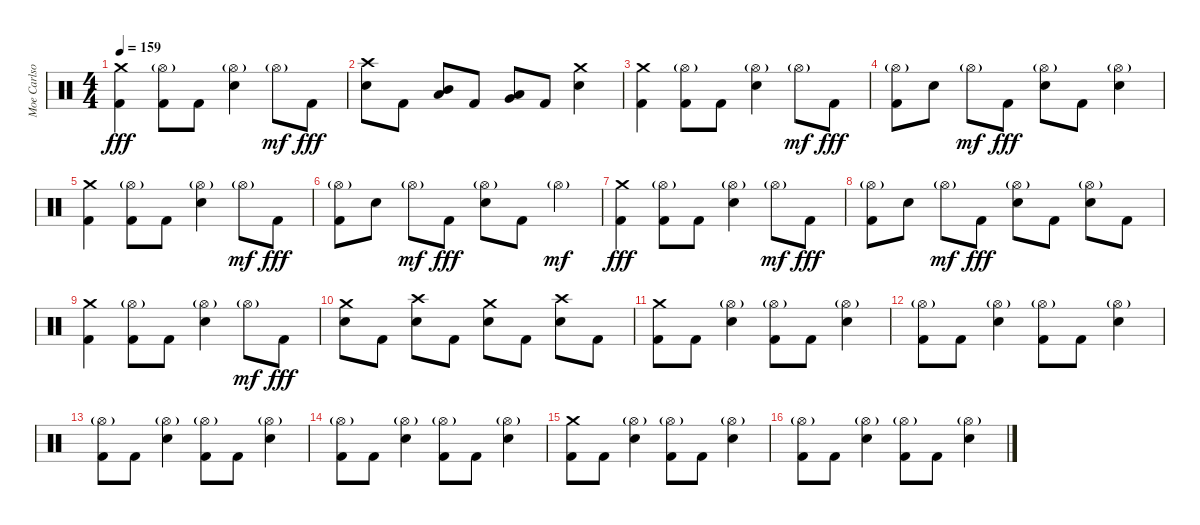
\track ("Moe Carlson" "Moe Carlso") {instrument percussion}
\staff {score}
\articulation defaults
\ts (4 4)
\tempo 159
\clef neutral
\ks c
("Crash medium (hit)" "Kick (hit) 2").4{dy fff} ("Hi-Hat (open)"{g} "Kick (hit) 2").8 "Kick (hit) 2".8 ("Hi-Hat (open)"{g} "Electric Snare (hit)").4 "Hi-Hat (open)"{g}.8{dy mf} "Kick (hit) 2".8{dy fff} |
("Crash high (hit)" "Electric Snare (hit)").8 "Kick (hit) 2".8 ("Mid Tom (hit)" "Low Tom (hit)").8 "Kick (hit) 2".8 ("Low Tom (hit)" "Very Low Tom (hit)").8 "Kick (hit) 2".8 ("Crash medium (hit)" "Electric Snare (hit)").4 |
("Crash medium (hit)" "Kick (hit) 2").4 ("Hi-Hat (open)"{g} "Kick (hit) 2").8 "Kick (hit) 2".8 ("Hi-Hat (open)"{g} "Electric Snare (hit)").4 "Hi-Hat (open)"{g}.8{dy mf} "Kick (hit) 2".8{dy fff} |
("Hi-Hat (open)"{g} "Kick (hit) 2").8 "Electric Snare (hit)".8 "Hi-Hat (open)"{g}.8{dy mf} "Kick (hit) 2".8{dy fff} ("Hi-Hat (open)"{g} "Electric Snare (hit)").8 "Kick (hit) 2".8 ("Hi-Hat (open)"{g} "Electric Snare (hit)").4 |
("Crash medium (hit)" "Kick (hit) 2").4 ("Hi-Hat (open)"{g} "Kick (hit) 2").8 "Kick (hit) 2".8 ("Hi-Hat (open)"{g} "Electric Snare (hit)").4 "Hi-Hat (open)"{g}.8{dy mf} "Kick (hit) 2".8{dy fff} |
("Hi-Hat (open)"{g} "Kick (hit) 2").8 "Electric Snare (hit)".8 "Hi-Hat (open)"{g}.8{dy mf} "Kick (hit) 2".8{dy fff} ("Hi-Hat (open)"{g} "Electric Snare (hit)").8 "Kick (hit) 2".8 "Hi-Hat (open)"{g}.4{dy mf} |
("Crash medium (hit)" "Kick (hit) 2").4{dy fff} ("Hi-Hat (open)"{g} "Kick (hit) 2").8 "Kick (hit) 2".8 ("Hi-Hat (open)"{g} "Electric Snare (hit)").4 "Hi-Hat (open)"{g}.8{dy mf} "Kick (hit) 2".8{dy fff} |
("Hi-Hat (open)"{g} "Kick (hit) 2").8 "Electric Snare (hit)".8 "Hi-Hat (open)"{g}.8{dy mf} "Kick (hit) 2".8{dy fff} ("Hi-Hat (open)"{g} "Electric Snare (hit)").8 "Kick (hit) 2".8 ("Hi-Hat (open)"{g} "Electric Snare (hit)").8 "Kick (hit) 2".8 |
("Crash medium (hit)" "Kick (hit) 2").4 ("Hi-Hat (open)"{g} "Kick (hit) 2").8 "Kick (hit) 2".8 ("Hi-Hat (open)"{g} "Electric Snare (hit)").4 "Hi-Hat (open)"{g}.8{dy mf} "Kick (hit) 2".8{dy fff} |
("Crash medium (hit)" "Electric Snare (hit)").8 "Kick (hit) 2".8 ("Crash high (hit)" "Electric Snare (hit)").8 "Kick (hit) 2".8 ("Crash medium (hit)" "Electric Snare (hit)").8 "Kick (hit) 2".8 ("Crash high (hit)" "Electric Snare (hit)").8 "Kick (hit) 2".8 |
("Crash medium (hit)" "Kick (hit) 2").8 "Kick (hit) 2".8 ("Hi-Hat (open)"{g} "Electric Snare (hit)").4 ("Hi-Hat (open)"{g} "Kick (hit) 2").8 "Kick (hit) 2".8 ("Hi-Hat (open)"{g} "Electric Snare (hit)").4 |
("Hi-Hat (open)"{g} "Kick (hit) 2").8 "Kick (hit) 2".8 ("Hi-Hat (open)"{g} "Electric Snare (hit)").4 ("Hi-Hat (open)"{g} "Kick (hit) 2").8 "Kick (hit) 2".8 ("Hi-Hat (open)"{g} "Electric Snare (hit)").4 |
("Hi-Hat (open)"{g} "Kick (hit) 2").8 "Kick (hit) 2".8 ("Hi-Hat (open)"{g} "Electric Snare (hit)").4 ("Hi-Hat (open)"{g} "Kick (hit) 2").8 "Kick (hit) 2".8 ("Hi-Hat (open)"{g} "Electric Snare (hit)").4 |
("Hi-Hat (open)"{g} "Kick (hit) 2").8 "Kick (hit) 2".8 ("Hi-Hat (open)"{g} "Electric Snare (hit)").4 ("Hi-Hat (open)"{g} "Kick (hit) 2").8 "Kick (hit) 2".8 ("Hi-Hat (open)"{g} "Electric Snare (hit)").4 |
("Crash medium (hit)" "Kick (hit) 2").8 "Kick (hit) 2".8 ("Hi-Hat (open)"{g} "Electric Snare (hit)").4 ("Hi-Hat (open)"{g} "Kick (hit) 2").8 "Kick (hit) 2".8 ("Hi-Hat (open)"{g} "Electric Snare (hit)").4 |
("Hi-Hat (open)"{g} "Kick (hit) 2").8 "Kick (hit) 2".8 ("Hi-Hat (open)"{g} "Electric Snare (hit)").4 ("Hi-Hat (open)"{g} "Kick (hit) 2").8 "Kick (hit) 2".8 ("Hi-Hat (open)"{g} "Electric Snare (hit)").4
